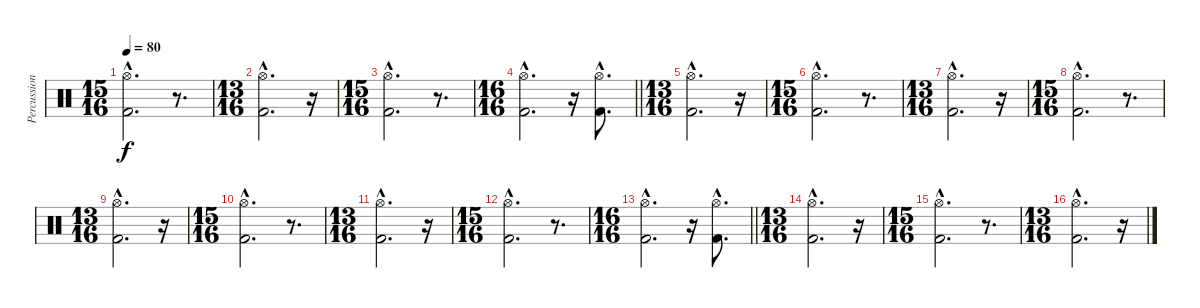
\track ("Percussion" "Percussion") {instrument percussion}
\staff {score}
\articulation defaults
\ts (15 16)
\tempo 80
\clef neutral
\ks c
("Hi-Hat (open)"{hac} "Kick (hit) 2"{hac}).2{d dy f} r.8{d} |
\ts (13 16)
("Hi-Hat (open)"{hac} "Kick (hit) 2"{hac}).2{d} r.16 |
\ts (15 16)
("Hi-Hat (open)"{hac} "Kick (hit) 2"{hac}).2{d} r.8{d} |
\ts (16 16)
\barLineRight lightlight
("Hi-Hat (open)"{hac} "Kick (hit) 2"{hac}).2{d} r.16 ("Hi-Hat (open)"{hac} "Kick (hit) 2"{hac}).8{d} |
\ts (13 16)
\section ("" "")
("Hi-Hat (open)"{hac} "Kick (hit) 2"{hac}).2{d} r.16 |
\ts (15 16)
("Hi-Hat (open)"{hac} "Kick (hit) 2"{hac}).2{d} r.8{d} |
\ts (13 16)
("Hi-Hat (open)"{hac} "Kick (hit) 2"{hac}).2{d} r.16 |
\ts (15 16)
("Hi-Hat (open)"{hac} "Kick (hit) 2"{hac}).2{d} r.8{d} |
\ts (13 16)
("Hi-Hat (open)"{hac} "Kick (hit) 2"{hac}).2{d} r.16 |
\ts (15 16)
("Hi-Hat (open)"{hac} "Kick (hit) 2"{hac}).2{d} r.8{d} |
\ts (13 16)
("Hi-Hat (open)"{hac} "Kick (hit) 2"{hac}).2{d} r.16 |
\ts (15 16)
("Hi-Hat (open)"{hac} "Kick (hit) 2"{hac}).2{d} r.8{d} |
\ts (16 16)
\barLineRight lightlight
("Hi-Hat (open)"{hac} "Kick (hit) 2"{hac}).2{d} r.16 ("Hi-Hat (open)"{hac} "Kick (hit) 2"{hac}).8{d} |
\ts (13 16)
\section ("" "")
("Hi-Hat (open)"{hac} "Kick (hit) 2"{hac}).2{d} r.16 |
\ts (15 16)
("Hi-Hat (open)"{hac} "Kick (hit) 2"{hac}).2{d} r.8{d} |
\ts (13 16)
("Hi-Hat (open)"{hac} "Kick (hit) 2"{hac}).2{d} r.16
